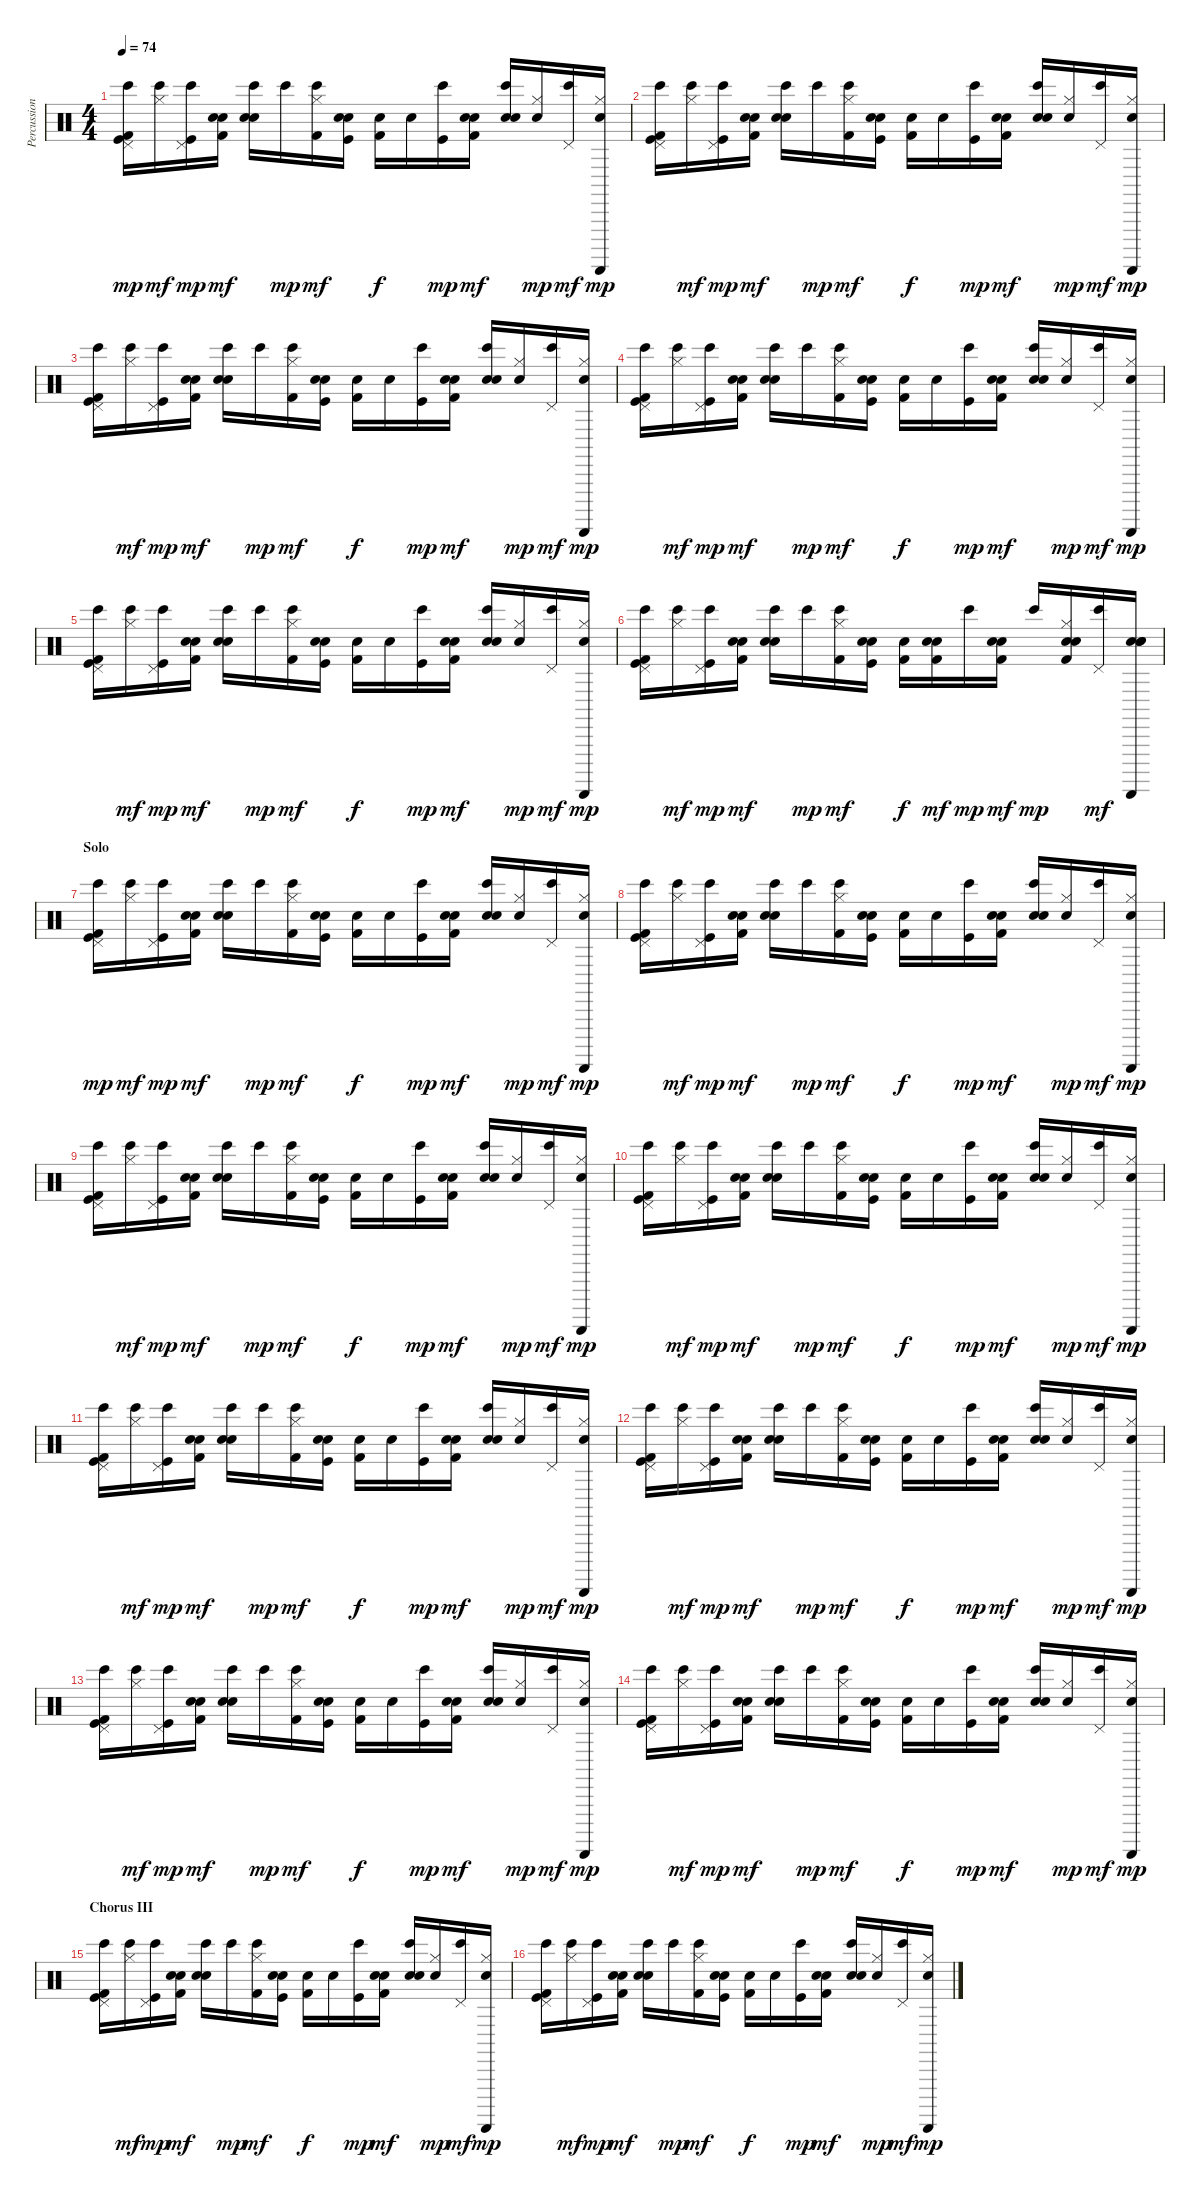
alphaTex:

\track ("Percussion" "Percussion") {instrument percussion}
\staff {score}
\articulation defaults
\ts (4 4)
\tempo 74
\clef neutral
\ks c
("Bongo High (hit)" "Pedal Hi-Hat (hit)" "Kick (hit) 2" "Kick (hit)").16{dy mp} ("Bongo High (hit)" "Hi-Hat (closed)").16{dy mf} ("Bongo High (hit)" "Pedal Hi-Hat (hit)" "Kick (hit)").16{dy mp} ("Snare (hit)" "Electric Snare (hit)" "Kick (hit) 2").16{dy mf} ("Bongo High (hit)" "Electric Snare (hit)" "Snare (hit) 2").16 "Bongo High (hit)".16{dy mp} ("Bongo High (hit)" "Hi-Hat (closed)" "Kick (hit) 2").16{dy mf} ("Snare (hit)" "Electric Snare (hit)" "Kick (hit)").16 ("Snare (hit)" "Kick (hit) 2").16{dy f} "Snare (hit)".16 ("Bongo High (hit)" "Kick (hit)").16{dy mp} ("Snare (hit)" "Electric Snare (hit)" "Kick (hit) 2").16{dy mf} ("Bongo High (hit)" "Electric Snare (hit)" "Snare (hit) 2").16 ("Snare (hit)" "Hi-Hat (closed)").16{dy mp} ("Bongo High (hit)" "Pedal Hi-Hat (hit)").16{dy mf} ("Snare (hit)" "Guiro (scrap-return)" "Hi-Hat (closed)").16{dy mp} |
("Bongo High (hit)" "Pedal Hi-Hat (hit)" "Kick (hit) 2" "Kick (hit)").16 ("Bongo High (hit)" "Hi-Hat (closed)").16{dy mf} ("Bongo High (hit)" "Pedal Hi-Hat (hit)" "Kick (hit)").16{dy mp} ("Snare (hit)" "Electric Snare (hit)" "Kick (hit) 2").16{dy mf} ("Bongo High (hit)" "Electric Snare (hit)" "Snare (hit) 2").16 "Bongo High (hit)".16{dy mp} ("Bongo High (hit)" "Hi-Hat (closed)" "Kick (hit) 2").16{dy mf} ("Snare (hit)" "Electric Snare (hit)" "Kick (hit)").16 ("Snare (hit)" "Kick (hit) 2").16{dy f} "Snare (hit)".16 ("Bongo High (hit)" "Kick (hit)").16{dy mp} ("Snare (hit)" "Electric Snare (hit)" "Kick (hit) 2").16{dy mf} ("Bongo High (hit)" "Electric Snare (hit)" "Snare (hit) 2").16 ("Snare (hit)" "Hi-Hat (closed)").16{dy mp} ("Bongo High (hit)" "Pedal Hi-Hat (hit)").16{dy mf} ("Snare (hit)" "Guiro (scrap-return)" "Hi-Hat (closed)").16{dy mp} |
("Bongo High (hit)" "Pedal Hi-Hat (hit)" "Kick (hit) 2" "Kick (hit)").16 ("Bongo High (hit)" "Hi-Hat (closed)").16{dy mf} ("Bongo High (hit)" "Pedal Hi-Hat (hit)" "Kick (hit)").16{dy mp} ("Snare (hit)" "Electric Snare (hit)" "Kick (hit) 2").16{dy mf} ("Bongo High (hit)" "Electric Snare (hit)" "Snare (hit) 2").16 "Bongo High (hit)".16{dy mp} ("Bongo High (hit)" "Hi-Hat (closed)" "Kick (hit) 2").16{dy mf} ("Snare (hit)" "Electric Snare (hit)" "Kick (hit)").16 ("Snare (hit)" "Kick (hit) 2").16{dy f} "Snare (hit)".16 ("Bongo High (hit)" "Kick (hit)").16{dy mp} ("Snare (hit)" "Electric Snare (hit)" "Kick (hit) 2").16{dy mf} ("Bongo High (hit)" "Electric Snare (hit)" "Snare (hit) 2").16 ("Snare (hit)" "Hi-Hat (closed)").16{dy mp} ("Bongo High (hit)" "Pedal Hi-Hat (hit)").16{dy mf} ("Snare (hit)" "Guiro (scrap-return)" "Hi-Hat (closed)").16{dy mp} |
("Bongo High (hit)" "Pedal Hi-Hat (hit)" "Kick (hit) 2" "Kick (hit)").16 ("Bongo High (hit)" "Hi-Hat (closed)").16{dy mf} ("Bongo High (hit)" "Pedal Hi-Hat (hit)" "Kick (hit)").16{dy mp} ("Snare (hit)" "Electric Snare (hit)" "Kick (hit) 2").16{dy mf} ("Bongo High (hit)" "Electric Snare (hit)" "Snare (hit) 2").16 "Bongo High (hit)".16{dy mp} ("Bongo High (hit)" "Hi-Hat (closed)" "Kick (hit) 2").16{dy mf} ("Snare (hit)" "Electric Snare (hit)" "Kick (hit)").16 ("Snare (hit)" "Kick (hit) 2").16{dy f} "Snare (hit)".16 ("Bongo High (hit)" "Kick (hit)").16{dy mp} ("Snare (hit)" "Electric Snare (hit)" "Kick (hit) 2").16{dy mf} ("Bongo High (hit)" "Electric Snare (hit)" "Snare (hit) 2").16 ("Snare (hit)" "Hi-Hat (closed)").16{dy mp} ("Bongo High (hit)" "Pedal Hi-Hat (hit)").16{dy mf} ("Snare (hit)" "Guiro (scrap-return)" "Hi-Hat (closed)").16{dy mp} |
("Bongo High (hit)" "Pedal Hi-Hat (hit)" "Kick (hit) 2" "Kick (hit)").16 ("Bongo High (hit)" "Hi-Hat (closed)").16{dy mf} ("Bongo High (hit)" "Pedal Hi-Hat (hit)" "Kick (hit)").16{dy mp} ("Snare (hit)" "Electric Snare (hit)" "Kick (hit) 2").16{dy mf} ("Bongo High (hit)" "Electric Snare (hit)" "Snare (hit) 2").16 "Bongo High (hit)".16{dy mp} ("Bongo High (hit)" "Hi-Hat (closed)" "Kick (hit) 2").16{dy mf} ("Snare (hit)" "Electric Snare (hit)" "Kick (hit)").16 ("Snare (hit)" "Kick (hit) 2").16{dy f} "Snare (hit)".16 ("Bongo High (hit)" "Kick (hit)").16{dy mp} ("Snare (hit)" "Electric Snare (hit)" "Kick (hit) 2").16{dy mf} ("Bongo High (hit)" "Electric Snare (hit)" "Snare (hit) 2").16 ("Snare (hit)" "Hi-Hat (closed)").16{dy mp} ("Bongo High (hit)" "Pedal Hi-Hat (hit)").16{dy mf} ("Snare (hit)" "Guiro (scrap-return)" "Hi-Hat (closed)").16{dy mp} |
("Bongo High (hit)" "Pedal Hi-Hat (hit)" "Kick (hit) 2" "Kick (hit)").16 ("Bongo High (hit)" "Hi-Hat (closed)").16{dy mf} ("Bongo High (hit)" "Pedal Hi-Hat (hit)" "Kick (hit)").16{dy mp} ("Snare (hit)" "Electric Snare (hit)" "Kick (hit) 2").16{dy mf} ("Bongo High (hit)" "Electric Snare (hit)" "Snare (hit) 2").16 "Bongo High (hit)".16{dy mp} ("Bongo High (hit)" "Hi-Hat (closed)" "Kick (hit) 2").16{dy mf} ("Snare (hit)" "Electric Snare (hit)" "Kick (hit)").16 ("Snare (hit)" "Kick (hit) 2").16{dy f} ("Snare (hit)" "Electric Snare (hit)" "Kick (hit) 2").16{dy mf} "Bongo High (hit)".16{dy mp} ("Snare (hit)" "Electric Snare (hit)" "Kick (hit) 2").16{dy mf} "Bongo High (hit)".16{dy mp} ("Snare (hit)" "Hi-Hat (closed)" "Electric Snare (hit)" "Kick (hit) 2").16 ("Bongo High (hit)" "Pedal Hi-Hat (hit)").16{dy mf} ("Snare (hit)" "Guiro (scrap-return)" "Electric Snare (hit)" "Snare (hit) 2").16 |
\section ("" "Solo")
("Bongo High (hit)" "Pedal Hi-Hat (hit)" "Kick (hit) 2" "Kick (hit)").16{dy mp} ("Bongo High (hit)" "Hi-Hat (closed)").16{dy mf} ("Bongo High (hit)" "Pedal Hi-Hat (hit)" "Kick (hit)").16{dy mp} ("Snare (hit)" "Electric Snare (hit)" "Kick (hit) 2").16{dy mf} ("Bongo High (hit)" "Electric Snare (hit)" "Snare (hit) 2").16 "Bongo High (hit)".16{dy mp} ("Bongo High (hit)" "Hi-Hat (closed)" "Kick (hit) 2").16{dy mf} ("Snare (hit)" "Electric Snare (hit)" "Kick (hit)").16 ("Snare (hit)" "Kick (hit) 2").16{dy f} "Snare (hit)".16 ("Bongo High (hit)" "Kick (hit)").16{dy mp} ("Snare (hit)" "Electric Snare (hit)" "Kick (hit) 2").16{dy mf} ("Bongo High (hit)" "Electric Snare (hit)" "Snare (hit) 2").16 ("Snare (hit)" "Hi-Hat (closed)").16{dy mp} ("Bongo High (hit)" "Pedal Hi-Hat (hit)").16{dy mf} ("Snare (hit)" "Guiro (scrap-return)" "Hi-Hat (closed)").16{dy mp} |
("Bongo High (hit)" "Pedal Hi-Hat (hit)" "Kick (hit) 2" "Kick (hit)").16 ("Bongo High (hit)" "Hi-Hat (closed)").16{dy mf} ("Bongo High (hit)" "Pedal Hi-Hat (hit)" "Kick (hit)").16{dy mp} ("Snare (hit)" "Electric Snare (hit)" "Kick (hit) 2").16{dy mf} ("Bongo High (hit)" "Electric Snare (hit)" "Snare (hit) 2").16 "Bongo High (hit)".16{dy mp} ("Bongo High (hit)" "Hi-Hat (closed)" "Kick (hit) 2").16{dy mf} ("Snare (hit)" "Electric Snare (hit)" "Kick (hit)").16 ("Snare (hit)" "Kick (hit) 2").16{dy f} "Snare (hit)".16 ("Bongo High (hit)" "Kick (hit)").16{dy mp} ("Snare (hit)" "Electric Snare (hit)" "Kick (hit) 2").16{dy mf} ("Bongo High (hit)" "Electric Snare (hit)" "Snare (hit) 2").16 ("Snare (hit)" "Hi-Hat (closed)").16{dy mp} ("Bongo High (hit)" "Pedal Hi-Hat (hit)").16{dy mf} ("Snare (hit)" "Guiro (scrap-return)" "Hi-Hat (closed)").16{dy mp} |
("Bongo High (hit)" "Pedal Hi-Hat (hit)" "Kick (hit) 2" "Kick (hit)").16 ("Bongo High (hit)" "Hi-Hat (closed)").16{dy mf} ("Bongo High (hit)" "Pedal Hi-Hat (hit)" "Kick (hit)").16{dy mp} ("Snare (hit)" "Electric Snare (hit)" "Kick (hit) 2").16{dy mf} ("Bongo High (hit)" "Electric Snare (hit)" "Snare (hit) 2").16 "Bongo High (hit)".16{dy mp} ("Bongo High (hit)" "Hi-Hat (closed)" "Kick (hit) 2").16{dy mf} ("Snare (hit)" "Electric Snare (hit)" "Kick (hit)").16 ("Snare (hit)" "Kick (hit) 2").16{dy f} "Snare (hit)".16 ("Bongo High (hit)" "Kick (hit)").16{dy mp} ("Snare (hit)" "Electric Snare (hit)" "Kick (hit) 2").16{dy mf} ("Bongo High (hit)" "Electric Snare (hit)" "Snare (hit) 2").16 ("Snare (hit)" "Hi-Hat (closed)").16{dy mp} ("Bongo High (hit)" "Pedal Hi-Hat (hit)").16{dy mf} ("Snare (hit)" "Guiro (scrap-return)" "Hi-Hat (closed)").16{dy mp} |
("Bongo High (hit)" "Pedal Hi-Hat (hit)" "Kick (hit) 2" "Kick (hit)").16 ("Bongo High (hit)" "Hi-Hat (closed)").16{dy mf} ("Bongo High (hit)" "Pedal Hi-Hat (hit)" "Kick (hit)").16{dy mp} ("Snare (hit)" "Electric Snare (hit)" "Kick (hit) 2").16{dy mf} ("Bongo High (hit)" "Electric Snare (hit)" "Snare (hit) 2").16 "Bongo High (hit)".16{dy mp} ("Bongo High (hit)" "Hi-Hat (closed)" "Kick (hit) 2").16{dy mf} ("Snare (hit)" "Electric Snare (hit)" "Kick (hit)").16 ("Snare (hit)" "Kick (hit) 2").16{dy f} "Snare (hit)".16 ("Bongo High (hit)" "Kick (hit)").16{dy mp} ("Snare (hit)" "Electric Snare (hit)" "Kick (hit) 2").16{dy mf} ("Bongo High (hit)" "Electric Snare (hit)" "Snare (hit) 2").16 ("Snare (hit)" "Hi-Hat (closed)").16{dy mp} ("Bongo High (hit)" "Pedal Hi-Hat (hit)").16{dy mf} ("Snare (hit)" "Guiro (scrap-return)" "Hi-Hat (closed)").16{dy mp} |
("Bongo High (hit)" "Pedal Hi-Hat (hit)" "Kick (hit) 2" "Kick (hit)").16 ("Bongo High (hit)" "Hi-Hat (closed)").16{dy mf} ("Bongo High (hit)" "Pedal Hi-Hat (hit)" "Kick (hit)").16{dy mp} ("Snare (hit)" "Electric Snare (hit)" "Kick (hit) 2").16{dy mf} ("Bongo High (hit)" "Electric Snare (hit)" "Snare (hit) 2").16 "Bongo High (hit)".16{dy mp} ("Bongo High (hit)" "Hi-Hat (closed)" "Kick (hit) 2").16{dy mf} ("Snare (hit)" "Electric Snare (hit)" "Kick (hit)").16 ("Snare (hit)" "Kick (hit) 2").16{dy f} "Snare (hit)".16 ("Bongo High (hit)" "Kick (hit)").16{dy mp} ("Snare (hit)" "Electric Snare (hit)" "Kick (hit) 2").16{dy mf} ("Bongo High (hit)" "Electric Snare (hit)" "Snare (hit) 2").16 ("Snare (hit)" "Hi-Hat (closed)").16{dy mp} ("Bongo High (hit)" "Pedal Hi-Hat (hit)").16{dy mf} ("Snare (hit)" "Guiro (scrap-return)" "Hi-Hat (closed)").16{dy mp} |
("Bongo High (hit)" "Pedal Hi-Hat (hit)" "Kick (hit) 2" "Kick (hit)").16 ("Bongo High (hit)" "Hi-Hat (closed)").16{dy mf} ("Bongo High (hit)" "Pedal Hi-Hat (hit)" "Kick (hit)").16{dy mp} ("Snare (hit)" "Electric Snare (hit)" "Kick (hit) 2").16{dy mf} ("Bongo High (hit)" "Electric Snare (hit)" "Snare (hit) 2").16 "Bongo High (hit)".16{dy mp} ("Bongo High (hit)" "Hi-Hat (closed)" "Kick (hit) 2").16{dy mf} ("Snare (hit)" "Electric Snare (hit)" "Kick (hit)").16 ("Snare (hit)" "Kick (hit) 2").16{dy f} "Snare (hit)".16 ("Bongo High (hit)" "Kick (hit)").16{dy mp} ("Snare (hit)" "Electric Snare (hit)" "Kick (hit) 2").16{dy mf} ("Bongo High (hit)" "Electric Snare (hit)" "Snare (hit) 2").16 ("Snare (hit)" "Hi-Hat (closed)").16{dy mp} ("Bongo High (hit)" "Pedal Hi-Hat (hit)").16{dy mf} ("Snare (hit)" "Guiro (scrap-return)" "Hi-Hat (closed)").16{dy mp} |
("Bongo High (hit)" "Pedal Hi-Hat (hit)" "Kick (hit) 2" "Kick (hit)").16 ("Bongo High (hit)" "Hi-Hat (closed)").16{dy mf} ("Bongo High (hit)" "Pedal Hi-Hat (hit)" "Kick (hit)").16{dy mp} ("Snare (hit)" "Electric Snare (hit)" "Kick (hit) 2").16{dy mf} ("Bongo High (hit)" "Electric Snare (hit)" "Snare (hit) 2").16 "Bongo High (hit)".16{dy mp} ("Bongo High (hit)" "Hi-Hat (closed)" "Kick (hit) 2").16{dy mf} ("Snare (hit)" "Electric Snare (hit)" "Kick (hit)").16 ("Snare (hit)" "Kick (hit) 2").16{dy f} "Snare (hit)".16 ("Bongo High (hit)" "Kick (hit)").16{dy mp} ("Snare (hit)" "Electric Snare (hit)" "Kick (hit) 2").16{dy mf} ("Bongo High (hit)" "Electric Snare (hit)" "Snare (hit) 2").16 ("Snare (hit)" "Hi-Hat (closed)").16{dy mp} ("Bongo High (hit)" "Pedal Hi-Hat (hit)").16{dy mf} ("Snare (hit)" "Guiro (scrap-return)" "Hi-Hat (closed)").16{dy mp} |
("Bongo High (hit)" "Pedal Hi-Hat (hit)" "Kick (hit) 2" "Kick (hit)").16 ("Bongo High (hit)" "Hi-Hat (closed)").16{dy mf} ("Bongo High (hit)" "Pedal Hi-Hat (hit)" "Kick (hit)").16{dy mp} ("Snare (hit)" "Electric Snare (hit)" "Kick (hit) 2").16{dy mf} ("Bongo High (hit)" "Electric Snare (hit)" "Snare (hit) 2").16 "Bongo High (hit)".16{dy mp} ("Bongo High (hit)" "Hi-Hat (closed)" "Kick (hit) 2").16{dy mf} ("Snare (hit)" "Electric Snare (hit)" "Kick (hit)").16 ("Snare (hit)" "Kick (hit) 2").16{dy f} "Snare (hit)".16 ("Bongo High (hit)" "Kick (hit)").16{dy mp} ("Snare (hit)" "Electric Snare (hit)" "Kick (hit) 2").16{dy mf} ("Bongo High (hit)" "Electric Snare (hit)" "Snare (hit) 2").16 ("Snare (hit)" "Hi-Hat (closed)").16{dy mp} ("Bongo High (hit)" "Pedal Hi-Hat (hit)").16{dy mf} ("Snare (hit)" "Guiro (scrap-return)" "Hi-Hat (closed)").16{dy mp} |
\section ("" "Chorus III")
("Bongo High (hit)" "Pedal Hi-Hat (hit)" "Kick (hit) 2" "Kick (hit)").16 ("Bongo High (hit)" "Hi-Hat (closed)").16{dy mf} ("Bongo High (hit)" "Pedal Hi-Hat (hit)" "Kick (hit)").16{dy mp} ("Snare (hit)" "Electric Snare (hit)" "Kick (hit) 2").16{dy mf} ("Bongo High (hit)" "Electric Snare (hit)" "Snare (hit) 2").16 "Bongo High (hit)".16{dy mp} ("Bongo High (hit)" "Hi-Hat (closed)" "Kick (hit) 2").16{dy mf} ("Snare (hit)" "Electric Snare (hit)" "Kick (hit)").16 ("Snare (hit)" "Kick (hit) 2").16{dy f} "Snare (hit)".16 ("Bongo High (hit)" "Kick (hit)").16{dy mp} ("Snare (hit)" "Electric Snare (hit)" "Kick (hit) 2").16{dy mf} ("Bongo High (hit)" "Electric Snare (hit)" "Snare (hit) 2").16 ("Snare (hit)" "Hi-Hat (closed)").16{dy mp} ("Bongo High (hit)" "Pedal Hi-Hat (hit)").16{dy mf} ("Snare (hit)" "Guiro (scrap-return)" "Hi-Hat (closed)").16{dy mp} |
("Bongo High (hit)" "Pedal Hi-Hat (hit)" "Kick (hit) 2" "Kick (hit)").16 ("Bongo High (hit)" "Hi-Hat (closed)").16{dy mf} ("Bongo High (hit)" "Pedal Hi-Hat (hit)" "Kick (hit)").16{dy mp} ("Snare (hit)" "Electric Snare (hit)" "Kick (hit) 2").16{dy mf} ("Bongo High (hit)" "Electric Snare (hit)" "Snare (hit) 2").16 "Bongo High (hit)".16{dy mp} ("Bongo High (hit)" "Hi-Hat (closed)" "Kick (hit) 2").16{dy mf} ("Snare (hit)" "Electric Snare (hit)" "Kick (hit)").16 ("Snare (hit)" "Kick (hit) 2").16{dy f} "Snare (hit)".16 ("Bongo High (hit)" "Kick (hit)").16{dy mp} ("Snare (hit)" "Electric Snare (hit)" "Kick (hit) 2").16{dy mf} ("Bongo High (hit)" "Electric Snare (hit)" "Snare (hit) 2").16 ("Snare (hit)" "Hi-Hat (closed)").16{dy mp} ("Bongo High (hit)" "Pedal Hi-Hat (hit)").16{dy mf} ("Snare (hit)" "Guiro (scrap-return)" "Hi-Hat (closed)").16{dy mp}
